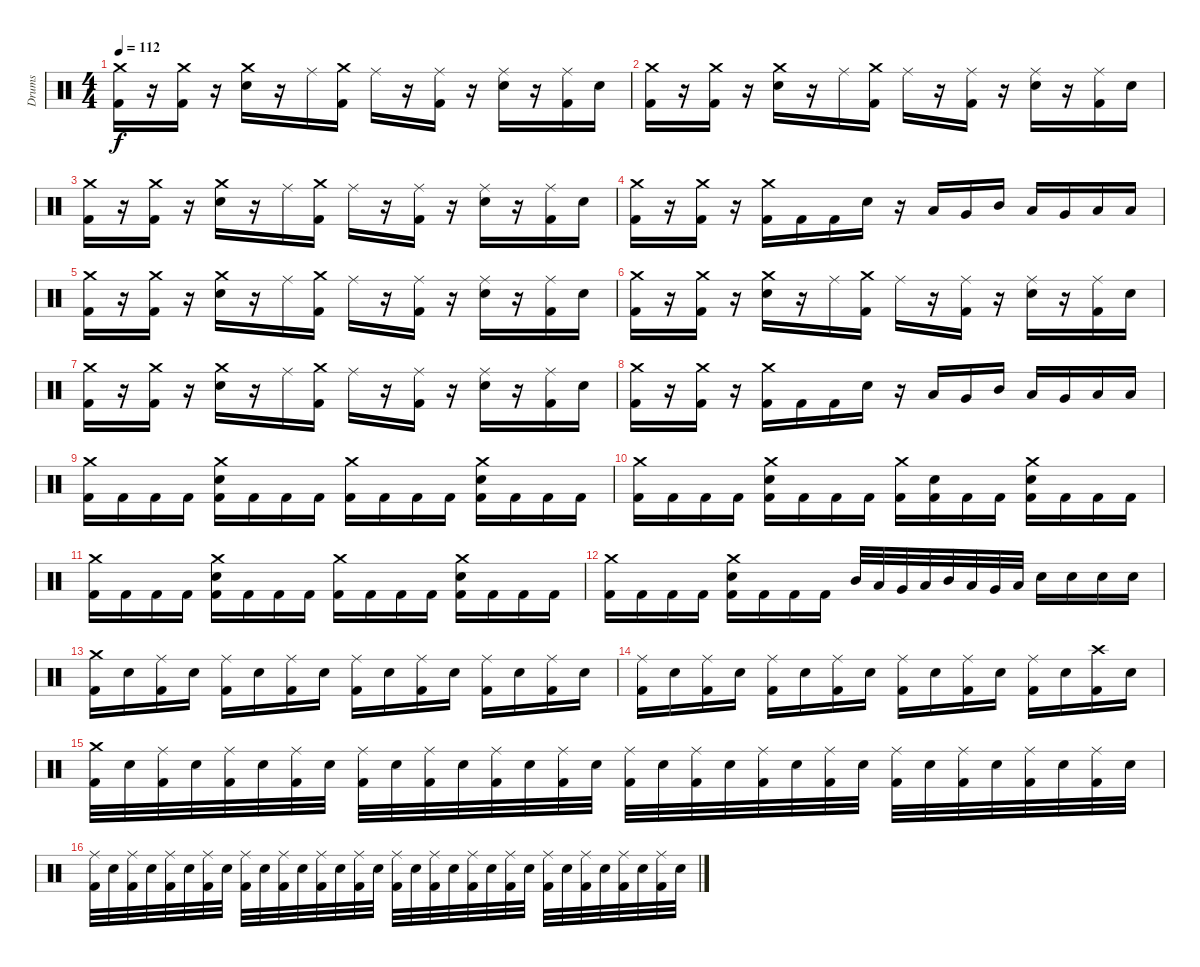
\track ("Drums" "Drums") {instrument percussion}
\staff {score}
\articulation defaults
\ts (4 4)
\section ("" "")
\tempo 112
\clef neutral
\ks c
("Crash medium (hit)" "Kick (hit) 2").16{dy f} r.16 ("Crash medium (hit)" "Kick (hit) 2").16 r.16 ("Crash medium (hit)" "Electric Snare (hit)").16 r.16 "Ride (middle)".16 ("Crash medium (hit)" "Kick (hit) 2").16 "Ride (middle)".16 r.16 ("Ride (middle)" "Kick (hit) 2").16 r.16 ("Ride (middle)" "Electric Snare (hit)").16 r.16 ("Ride (middle)" "Kick (hit) 2").16 "Electric Snare (hit)".16 |
("Crash medium (hit)" "Kick (hit) 2").16 r.16 ("Crash medium (hit)" "Kick (hit) 2").16 r.16 ("Crash medium (hit)" "Electric Snare (hit)").16 r.16 "Ride (middle)".16 ("Crash medium (hit)" "Kick (hit) 2").16 "Ride (middle)".16 r.16 ("Ride (middle)" "Kick (hit) 2").16 r.16 ("Ride (middle)" "Electric Snare (hit)").16 r.16 ("Ride (middle)" "Kick (hit) 2").16 "Electric Snare (hit)".16 |
("Crash medium (hit)" "Kick (hit) 2").16 r.16 ("Crash medium (hit)" "Kick (hit) 2").16 r.16 ("Crash medium (hit)" "Electric Snare (hit)").16 r.16 "Ride (middle)".16 ("Crash medium (hit)" "Kick (hit) 2").16 "Ride (middle)".16 r.16 ("Ride (middle)" "Kick (hit) 2").16 r.16 ("Ride (middle)" "Electric Snare (hit)").16 r.16 ("Ride (middle)" "Kick (hit) 2").16 "Electric Snare (hit)".16 |
("Crash medium (hit)" "Kick (hit) 2").16 r.16 ("Crash medium (hit)" "Kick (hit) 2").16 r.16 ("Crash medium (hit)" "Kick (hit) 2").16 "Kick (hit) 2".16 "Kick (hit) 2".16 "Electric Snare (hit)".16 r.16 "Low Tom (hit)".16 "Very Low Tom (hit)".16 "Mid Tom (hit)".16 "Low Tom (hit)".16 "Very Low Tom (hit)".16 "Low Floor Tom (hit)".16 "Low Floor Tom (hit)".16 |
("Crash medium (hit)" "Kick (hit) 2").16 r.16 ("Crash medium (hit)" "Kick (hit) 2").16 r.16 ("Crash medium (hit)" "Electric Snare (hit)").16 r.16 "Ride (middle)".16 ("Crash medium (hit)" "Kick (hit) 2").16 "Ride (middle)".16 r.16 ("Ride (middle)" "Kick (hit) 2").16 r.16 ("Ride (middle)" "Electric Snare (hit)").16 r.16 ("Ride (middle)" "Kick (hit) 2").16 "Electric Snare (hit)".16 |
("Crash medium (hit)" "Kick (hit) 2").16 r.16 ("Crash medium (hit)" "Kick (hit) 2").16 r.16 ("Crash medium (hit)" "Electric Snare (hit)").16 r.16 "Ride (middle)".16 ("Crash medium (hit)" "Kick (hit) 2").16 "Ride (middle)".16 r.16 ("Ride (middle)" "Kick (hit) 2").16 r.16 ("Ride (middle)" "Electric Snare (hit)").16 r.16 ("Ride (middle)" "Kick (hit) 2").16 "Electric Snare (hit)".16 |
("Crash medium (hit)" "Kick (hit) 2").16 r.16 ("Crash medium (hit)" "Kick (hit) 2").16 r.16 ("Crash medium (hit)" "Electric Snare (hit)").16 r.16 "Ride (middle)".16 ("Crash medium (hit)" "Kick (hit) 2").16 "Ride (middle)".16 r.16 ("Ride (middle)" "Kick (hit) 2").16 r.16 ("Ride (middle)" "Electric Snare (hit)").16 r.16 ("Ride (middle)" "Kick (hit) 2").16 "Electric Snare (hit)".16 |
("Crash medium (hit)" "Kick (hit) 2").16 r.16 ("Crash medium (hit)" "Kick (hit) 2").16 r.16 ("Crash medium (hit)" "Kick (hit) 2").16 "Kick (hit) 2".16 "Kick (hit) 2".16 "Electric Snare (hit)".16 r.16 "Low Tom (hit)".16 "Very Low Tom (hit)".16 "Mid Tom (hit)".16 "Low Tom (hit)".16 "Very Low Tom (hit)".16 "Low Floor Tom (hit)".16 "Low Floor Tom (hit)".16 |
\section ("" "")
("Crash medium (hit)" "Kick (hit) 2").16 "Kick (hit) 2".16 "Kick (hit) 2".16 "Kick (hit) 2".16 ("Crash medium (hit)" "Electric Snare (hit)" "Kick (hit) 2").16 "Kick (hit) 2".16 "Kick (hit) 2".16 "Kick (hit) 2".16 ("Crash medium (hit)" "Kick (hit) 2").16 "Kick (hit) 2".16 "Kick (hit) 2".16 "Kick (hit) 2".16 ("Crash medium (hit)" "Electric Snare (hit)" "Kick (hit) 2").16 "Kick (hit) 2".16 "Kick (hit) 2".16 "Kick (hit) 2".16 |
("Crash medium (hit)" "Kick (hit) 2").16 "Kick (hit) 2".16 "Kick (hit) 2".16 "Kick (hit) 2".16 ("Crash medium (hit)" "Electric Snare (hit)" "Kick (hit) 2").16 "Kick (hit) 2".16 "Kick (hit) 2".16 "Kick (hit) 2".16 ("Crash medium (hit)" "Kick (hit) 2").16 ("Electric Snare (hit)" "Kick (hit) 2").16 "Kick (hit) 2".16 "Kick (hit) 2".16 ("Crash medium (hit)" "Electric Snare (hit)" "Kick (hit) 2").16 "Kick (hit) 2".16 "Kick (hit) 2".16 "Kick (hit) 2".16 |
("Crash medium (hit)" "Kick (hit) 2").16 "Kick (hit) 2".16 "Kick (hit) 2".16 "Kick (hit) 2".16 ("Crash medium (hit)" "Electric Snare (hit)" "Kick (hit) 2").16 "Kick (hit) 2".16 "Kick (hit) 2".16 "Kick (hit) 2".16 ("Crash medium (hit)" "Kick (hit) 2").16 "Kick (hit) 2".16 "Kick (hit) 2".16 "Kick (hit) 2".16 ("Crash medium (hit)" "Electric Snare (hit)" "Kick (hit) 2").16 "Kick (hit) 2".16 "Kick (hit) 2".16 "Kick (hit) 2".16 |
("Crash medium (hit)" "Kick (hit) 2").16 "Kick (hit) 2".16 "Kick (hit) 2".16 "Kick (hit) 2".16 ("Crash medium (hit)" "Electric Snare (hit)" "Kick (hit) 2").16 "Kick (hit) 2".16 "Kick (hit) 2".16 "Kick (hit) 2".16 "Mid Tom (hit)".32 "Low Tom (hit)".32 "Very Low Tom (hit)".32 "Low Floor Tom (hit)".32 "Mid Tom (hit)".32 "Low Tom (hit)".32 "Very Low Tom (hit)".32 "Low Floor Tom (hit)".32 "Electric Snare (hit)".16 "Electric Snare (hit)".16 "Electric Snare (hit)".16 "Electric Snare (hit)".16 |
\section ("" "")
("Crash medium (hit)" "Kick (hit) 2").16 "Electric Snare (hit)".16 ("Ride (middle)" "Kick (hit) 2").16 "Electric Snare (hit)".16 ("Ride (middle)" "Kick (hit) 2").16 "Electric Snare (hit)".16 ("Ride (middle)" "Kick (hit) 2").16 "Electric Snare (hit)".16 ("Ride (middle)" "Kick (hit) 2").16 "Electric Snare (hit)".16 ("Ride (middle)" "Kick (hit) 2").16 "Electric Snare (hit)".16 ("Ride (middle)" "Kick (hit) 2").16 "Electric Snare (hit)".16 ("Ride (middle)" "Kick (hit) 2").16 "Electric Snare (hit)".16 |
("Ride (middle)" "Kick (hit) 2").16 "Electric Snare (hit)".16 ("Ride (middle)" "Kick (hit) 2").16 "Electric Snare (hit)".16 ("Ride (middle)" "Kick (hit) 2").16 "Electric Snare (hit)".16 ("Ride (middle)" "Kick (hit) 2").16 "Electric Snare (hit)".16 ("Ride (middle)" "Kick (hit) 2").16 "Electric Snare (hit)".16 ("Ride (middle)" "Kick (hit) 2").16 "Electric Snare (hit)".16 ("Ride (middle)" "Kick (hit) 2").16 "Electric Snare (hit)".16 ("Crash high (hit)" "Kick (hit) 2").16 "Electric Snare (hit)".16 |
("Crash medium (hit)" "Kick (hit) 2").32 "Electric Snare (hit)".32 ("Ride (middle)" "Kick (hit) 2").32 "Electric Snare (hit)".32 ("Ride (middle)" "Kick (hit) 2").32 "Electric Snare (hit)".32 ("Ride (middle)" "Kick (hit) 2").32 "Electric Snare (hit)".32 ("Ride (middle)" "Kick (hit) 2").32 "Electric Snare (hit)".32 ("Ride (middle)" "Kick (hit) 2").32 "Electric Snare (hit)".32 ("Ride (middle)" "Kick (hit) 2").32 "Electric Snare (hit)".32 ("Ride (middle)" "Kick (hit) 2").32 "Electric Snare (hit)".32 ("Ride (middle)" "Kick (hit) 2").32 "Electric Snare (hit)".32 ("Ride (middle)" "Kick (hit) 2").32 "Electric Snare (hit)".32 ("Ride (middle)" "Kick (hit) 2").32 "Electric Snare (hit)".32 ("Ride (middle)" "Kick (hit) 2").32 "Electric Snare (hit)".32 ("Ride (middle)" "Kick (hit) 2").32 "Electric Snare (hit)".32 ("Ride (middle)" "Kick (hit) 2").32 "Electric Snare (hit)".32 ("Ride (middle)" "Kick (hit) 2").32 "Electric Snare (hit)".32 ("Ride (middle)" "Kick (hit) 2").32 "Electric Snare (hit)".32 |
("Ride (middle)" "Kick (hit) 2").32 "Electric Snare (hit)".32 ("Ride (middle)" "Kick (hit) 2").32 "Electric Snare (hit)".32 ("Ride (middle)" "Kick (hit) 2").32 "Electric Snare (hit)".32 ("Ride (middle)" "Kick (hit) 2").32 "Electric Snare (hit)".32 ("Ride (middle)" "Kick (hit) 2").32 "Electric Snare (hit)".32 ("Ride (middle)" "Kick (hit) 2").32 "Electric Snare (hit)".32 ("Ride (middle)" "Kick (hit) 2").32 "Electric Snare (hit)".32 ("Ride (middle)" "Kick (hit) 2").32 "Electric Snare (hit)".32 ("Ride (middle)" "Kick (hit) 2").32 "Electric Snare (hit)".32 ("Ride (middle)" "Kick (hit) 2").32 "Electric Snare (hit)".32 ("Ride (middle)" "Kick (hit) 2").32 "Electric Snare (hit)".32 ("Ride (middle)" "Kick (hit) 2").32 "Electric Snare (hit)".32 ("Ride (middle)" "Kick (hit) 2").32 "Electric Snare (hit)".32 ("Ride (middle)" "Kick (hit) 2").32 "Electric Snare (hit)".32 ("Ride (middle)" "Kick (hit) 2").32 "Electric Snare (hit)".32 ("Ride (middle)" "Kick (hit) 2").32 "Electric Snare (hit)".32
